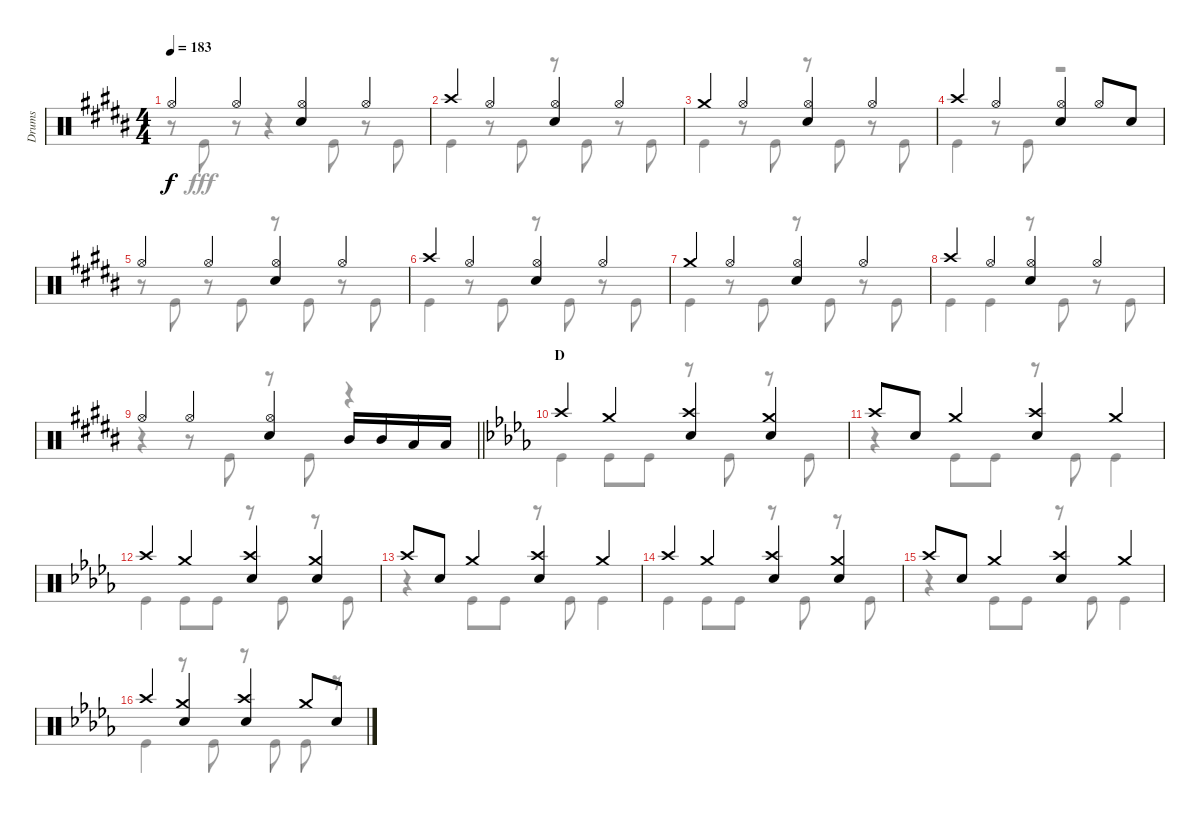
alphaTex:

\track ("Drums" "Drums") {instrument percussion}
\staff {score}
\articulation defaults
\voice
\ts (4 4)
\tempo 183
\clef neutral
\ks b "Hi-Hat (open)".4{dy f} "Hi-Hat (open)".4
("Hi-Hat (open)" "Snare (hit) 2").4 "Hi-Hat (open)".4 |
"Crash high (hit)".4 "Hi-Hat (open)".4 ("Hi-Hat (open)" "Snare (hit) 2").4 "Hi-Hat (open)".4 |
"Crash medium (hit)".4 "Hi-Hat (open)".4 ("Hi-Hat (open)" "Snare (hit) 2").4 "Hi-Hat (open)".4 |
"Crash high (hit)".4 "Hi-Hat (open)".4 ("Hi-Hat (open)" "Snare (hit) 2").4 "Hi-Hat (open)".8 "Snare (hit) 2".8 |
"Hi-Hat (open)".4 "Hi-Hat (open)".4 ("Hi-Hat (open)" "Snare (hit) 2").4 "Hi-Hat (open)".4 |
"Crash high (hit)".4 "Hi-Hat (open)".4 ("Hi-Hat (open)" "Snare (hit) 2").4 "Hi-Hat (open)".4 |
"Crash medium (hit)".4 "Hi-Hat (open)".4 ("Hi-Hat (open)" "Snare (hit) 2").4 "Hi-Hat (open)".4 |
"Crash high (hit)".4 "Hi-Hat (open)".4 ("Hi-Hat (open)" "Snare (hit) 2").4 "Hi-Hat (open)".4 |
\barLineRight lightlight "Hi-Hat (open)".4 "Hi-Hat (open)".4
("Hi-Hat (open)" "Snare (hit) 2").4 "Mid Tom (hit)".16 "Mid Tom (hit)".16 "Low Tom (hit)".16 "Low Tom (hit)".16 |
\section ("" "D")
\ks db "Crash high (hit)".4 "Crash medium (hit)".4
("Crash high (hit)" "Snare (hit) 2").4 ("Crash medium (hit)" "Snare (hit) 2").4 |
"Crash high (hit)".8 "Snare (hit) 2".8 "Crash medium (hit)".4 ("Crash high (hit)" "Snare (hit) 2").4 "Crash medium (hit)".4 |
"Crash high (hit)".4 "Crash medium (hit)".4 ("Crash high (hit)" "Snare (hit) 2").4 ("Crash medium (hit)" "Snare (hit) 2").4 |
"Crash high (hit)".8 "Snare (hit) 2".8 "Crash medium (hit)".4 ("Crash high (hit)" "Snare (hit) 2").4 "Crash medium (hit)".4 |
"Crash high (hit)".4 "Crash medium (hit)".4 ("Crash high (hit)" "Snare (hit) 2").4 ("Crash medium (hit)" "Snare (hit) 2").4 |
"Crash high (hit)".8 "Snare (hit) 2".8 "Crash medium (hit)".4 ("Crash high (hit)" "Snare (hit) 2").4 "Crash medium (hit)".4 |
"Crash high (hit)".4 ("Crash medium (hit)" "Snare (hit) 2").4 ("Crash high (hit)" "Snare (hit) 2").4 "Crash medium (hit)".8 "Snare (hit) 2".8
\voice
\clef neutral
\ottava regular
\simile none
\ks b
r.8{dy fff} "Kick (hit)".8 r.8 r.4 "Kick (hit)".8 r.8 "Kick (hit)".8 |
"Kick (hit)".4 r.8 "Kick (hit)".8 r.8 "Kick (hit)".8 r.8 "Kick (hit)".8 |
"Kick (hit)".4 r.8 "Kick (hit)".8 r.8 "Kick (hit)".8 r.8 "Kick (hit)".8 |
"Kick (hit)".4 r.8 "Kick (hit)".8 r.2 |
r.8 "Kick (hit)".8 r.8 "Kick (hit)".8 r.8 "Kick (hit)".8 r.8 "Kick (hit)".8 |
"Kick (hit)".4 r.8 "Kick (hit)".8 r.8 "Kick (hit)".8 r.8 "Kick (hit)".8 |
"Kick (hit)".4 r.8 "Kick (hit)".8 r.8 "Kick (hit)".8 r.8 "Kick (hit)".8 |
"Kick (hit)".4 "Kick (hit)".4 r.8 "Kick (hit)".8 r.8 "Kick (hit)".8 |
\barLineRight lightlight
r.4 r.8 "Kick (hit)".8 r.8 "Kick (hit)".8 r.4 |
\ks db "Kick (hit)".4 "Kick (hit)".8 "Kick (hit)".8
r.8 "Kick (hit)".8 r.8 "Kick (hit)".8 |
r.4 "Kick (hit)".8 "Kick (hit)".8 r.8 "Kick (hit)".8 "Kick (hit)".4 |
"Kick (hit)".4 "Kick (hit)".8 "Kick (hit)".8 r.8 "Kick (hit)".8 r.8 "Kick (hit)".8 |
r.4 "Kick (hit)".8 "Kick (hit)".8 r.8 "Kick (hit)".8 "Kick (hit)".4 |
"Kick (hit)".4 "Kick (hit)".8 "Kick (hit)".8 r.8 "Kick (hit)".8 r.8 "Kick (hit)".8 |
r.4 "Kick (hit)".8 "Kick (hit)".8 r.8 "Kick (hit)".8 "Kick (hit)".4 |
"Kick (hit)".4 r.8 "Kick (hit)".8 r.8 "Kick (hit)".8 "Kick (hit)".8 r.8
